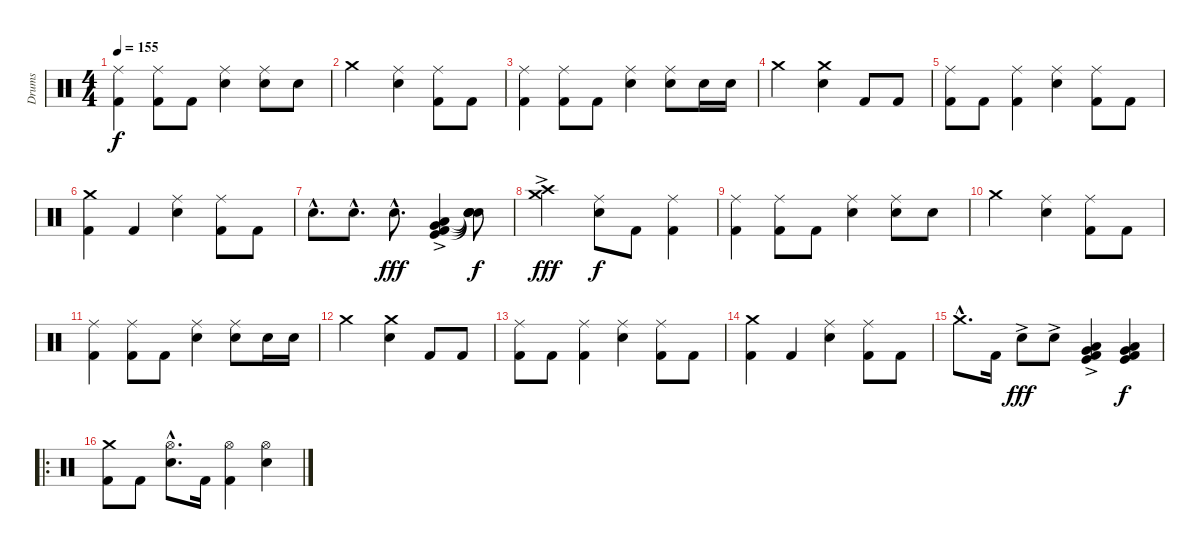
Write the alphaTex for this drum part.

\track ("Drums" "Drums") {instrument percussion}
\staff {score}
\articulation defaults
\ts (4 4)
\tempo 155
\clef neutral
\ks c
("Ride (middle)" "Kick (hit) 2").4{dy f} ("Ride (middle)" "Kick (hit) 2").8 "Kick (hit) 2".8 ("Ride (middle)" "Snare (hit) 2").4 ("Ride (middle)" "Snare (hit) 2").8 "Snare (hit) 2".8 |
"Crash medium (hit)".2 ("Ride (middle)" "Snare (hit) 2").4 ("Ride (middle)" "Kick (hit) 2").8 "Kick (hit) 2".8 |
("Ride (middle)" "Kick (hit) 2").4 ("Ride (middle)" "Kick (hit) 2").8 "Kick (hit) 2".8 ("Ride (middle)" "Snare (hit) 2").4 ("Ride (middle)" "Snare (hit) 2").8 "Snare (hit) 2".16 "Snare (hit) 2".16 |
"Crash medium (hit)".2 ("Crash medium (hit)" "Snare (hit) 2").4 "Kick (hit) 2".8 "Kick (hit) 2".8 |
("Ride (middle)" "Kick (hit) 2").8 "Kick (hit) 2".8 ("Ride (middle)" "Kick (hit) 2").4 ("Ride (middle)" "Snare (hit) 2").4 ("Ride (middle)" "Kick (hit) 2").8 "Kick (hit) 2".8 |
("Crash medium (hit)" "Kick (hit) 2").4 "Kick (hit) 2".4 ("Ride (middle)" "Snare (hit) 2").4 ("Ride (middle)" "Kick (hit) 2").8 "Kick (hit) 2".8 |
"Snare (hit) 2"{hac}.8{d} "Snare (hit) 2"{hac}.8{d} "Snare (hit) 2"{hac}.8{d dy fff} ("Low Floor Tom (hit)"{ac} "Very Low Tom (hit)"{ac} "Kick (hit) 2"{ac} "Kick (hit)"{ac}).4 ("Snare (hit)"{t} "Snare (hit)"{t} "Snare (hit)"{t} "Snare (hit)"{t}).8{dy f} |
("Crash medium (hit)"{ac} "Crash high (hit)"{ac}).2{dy fff} ("Ride (middle)" "Snare (hit) 2").8{dy f} "Kick (hit) 2".8 ("Ride (middle)" "Kick (hit) 2").4 |
("Ride (middle)" "Kick (hit) 2").4 ("Ride (middle)" "Kick (hit) 2").8 "Kick (hit) 2".8 ("Ride (middle)" "Snare (hit) 2").4 ("Ride (middle)" "Snare (hit) 2").8 "Snare (hit) 2".8 |
"Crash medium (hit)".2 ("Ride (middle)" "Snare (hit) 2").4 ("Ride (middle)" "Kick (hit) 2").8 "Kick (hit) 2".8 |
("Ride (middle)" "Kick (hit) 2").4 ("Ride (middle)" "Kick (hit) 2").8 "Kick (hit) 2".8 ("Ride (middle)" "Snare (hit) 2").4 ("Ride (middle)" "Snare (hit) 2").8 "Snare (hit) 2".16 "Snare (hit) 2".16 |
"Crash medium (hit)".2 ("Crash medium (hit)" "Snare (hit) 2").4 "Kick (hit) 2".8 "Kick (hit) 2".8 |
("Ride (middle)" "Kick (hit) 2").8 "Kick (hit) 2".8 ("Ride (middle)" "Kick (hit) 2").4 ("Ride (middle)" "Snare (hit) 2").4 ("Ride (middle)" "Kick (hit) 2").8 "Kick (hit) 2".8 |
("Crash medium (hit)" "Kick (hit) 2").4 "Kick (hit) 2".4 ("Ride (middle)" "Snare (hit) 2").4 ("Ride (middle)" "Kick (hit) 2").8 "Kick (hit) 2".8 |
"Crash medium (hit)"{hac}.8{d} "Kick (hit) 2".16 "Snare (hit) 2"{ac}.8{dy fff} "Snare (hit) 2"{ac}.8 ("Low Floor Tom (hit)"{ac} "Very Low Tom (hit)"{ac} "Kick (hit) 2"{ac} "Kick (hit)"{ac}).4 ("Low Floor Tom (hit)" "Very Low Tom (hit)" "Kick (hit) 2" "Kick (hit)").4{dy f} |
\ro
("Crash medium (hit)" "Kick (hit) 2").8 "Kick (hit) 2".8 ("Hi-Hat (open)"{hac} "Snare (hit) 2"{hac}).8{d} "Kick (hit) 2".16 ("Hi-Hat (open)" "Kick (hit) 2").4 ("Hi-Hat (open)" "Snare (hit) 2").4
